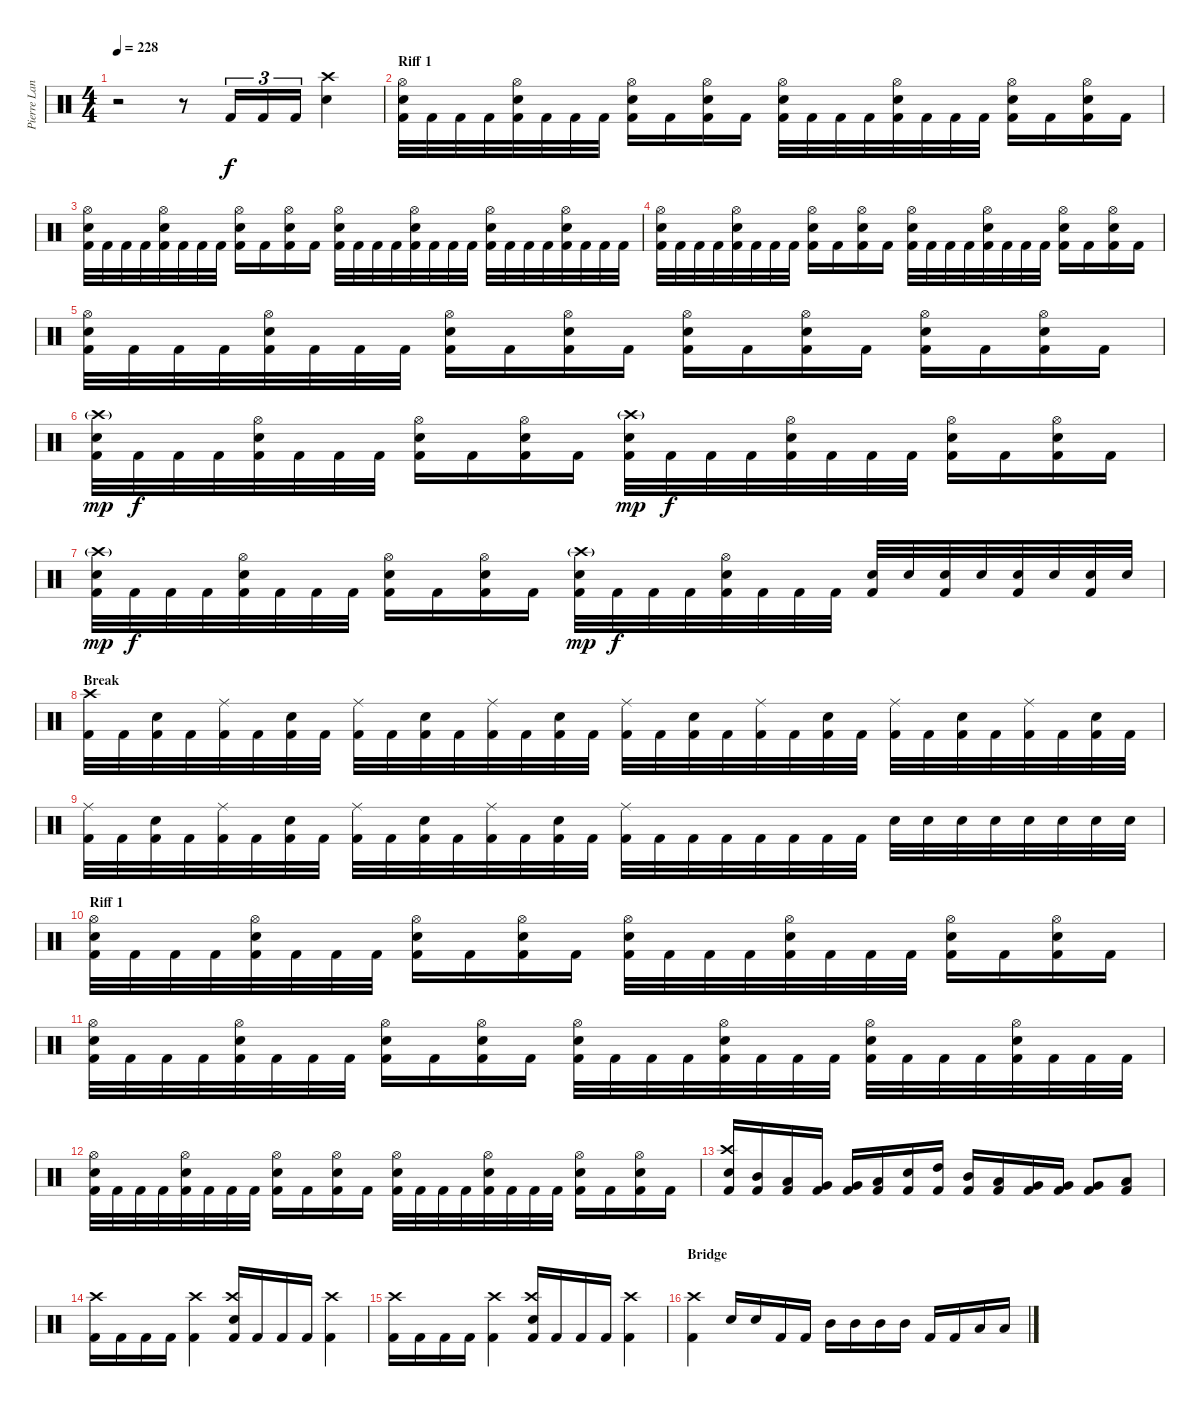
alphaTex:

\track ("Pierre Langlois (Drums)" "Pierre Lan") {instrument percussion}
\staff {score}
\articulation defaults
\ts (4 4)
\tempo 228
\clef neutral
\ks c
r.2{dy f} r.8 "Kick (hit) 2".16{tu (3 2)} "Kick (hit) 2".16{tu (3 2)} "Kick (hit) 2".16{tu (3 2)} ("Crash high (hit)" "Snare (hit) 2").4 |
\section ("" "Riff 1")
("Hi-Hat (open)" "Snare (hit) 2" "Kick (hit) 2").32 "Kick (hit) 2".32 "Kick (hit) 2".32 "Kick (hit) 2".32 ("Hi-Hat (open)" "Snare (hit) 2" "Kick (hit) 2").32 "Kick (hit) 2".32 "Kick (hit) 2".32 "Kick (hit) 2".32 ("Hi-Hat (open)" "Kick (hit) 2" "Snare (hit) 2").16 "Kick (hit) 2".16 ("Hi-Hat (open)" "Snare (hit) 2" "Kick (hit) 2").16 "Kick (hit) 2".16 ("Hi-Hat (open)" "Snare (hit) 2" "Kick (hit) 2").32 "Kick (hit) 2".32 "Kick (hit) 2".32 "Kick (hit) 2".32 ("Hi-Hat (open)" "Snare (hit) 2" "Kick (hit) 2").32 "Kick (hit) 2".32 "Kick (hit) 2".32 "Kick (hit) 2".32 ("Hi-Hat (open)" "Snare (hit) 2" "Kick (hit) 2").16 "Kick (hit) 2".16 ("Hi-Hat (open)" "Snare (hit) 2" "Kick (hit) 2").16 "Kick (hit) 2".16 |
("Hi-Hat (open)" "Snare (hit) 2" "Kick (hit) 2").32 "Kick (hit) 2".32 "Kick (hit) 2".32 "Kick (hit) 2".32 ("Hi-Hat (open)" "Snare (hit) 2" "Kick (hit) 2").32 "Kick (hit) 2".32 "Kick (hit) 2".32 "Kick (hit) 2".32 ("Hi-Hat (open)" "Kick (hit) 2" "Snare (hit) 2").16 "Kick (hit) 2".16 ("Hi-Hat (open)" "Snare (hit) 2" "Kick (hit) 2").16 "Kick (hit) 2".16 ("Hi-Hat (open)" "Snare (hit) 2" "Kick (hit) 2").32 "Kick (hit) 2".32 "Kick (hit) 2".32 "Kick (hit) 2".32 ("Hi-Hat (open)" "Snare (hit) 2" "Kick (hit) 2").32 "Kick (hit) 2".32 "Kick (hit) 2".32 "Kick (hit) 2".32 ("Hi-Hat (open)" "Snare (hit) 2" "Kick (hit) 2").32 "Kick (hit) 2".32 "Kick (hit) 2".32 "Kick (hit) 2".32 ("Hi-Hat (open)" "Snare (hit) 2" "Kick (hit) 2").32 "Kick (hit) 2".32 "Kick (hit) 2".32 "Kick (hit) 2".32 |
("Hi-Hat (open)" "Snare (hit) 2" "Kick (hit) 2").32 "Kick (hit) 2".32 "Kick (hit) 2".32 "Kick (hit) 2".32 ("Hi-Hat (open)" "Snare (hit) 2" "Kick (hit) 2").32 "Kick (hit) 2".32 "Kick (hit) 2".32 "Kick (hit) 2".32 ("Hi-Hat (open)" "Kick (hit) 2" "Snare (hit) 2").16 "Kick (hit) 2".16 ("Hi-Hat (open)" "Snare (hit) 2" "Kick (hit) 2").16 "Kick (hit) 2".16 ("Hi-Hat (open)" "Snare (hit) 2" "Kick (hit) 2").32 "Kick (hit) 2".32 "Kick (hit) 2".32 "Kick (hit) 2".32 ("Hi-Hat (open)" "Snare (hit) 2" "Kick (hit) 2").32 "Kick (hit) 2".32 "Kick (hit) 2".32 "Kick (hit) 2".32 ("Hi-Hat (open)" "Snare (hit) 2" "Kick (hit) 2").16 "Kick (hit) 2".16 ("Hi-Hat (open)" "Snare (hit) 2" "Kick (hit) 2").16 "Kick (hit) 2".16 |
("Hi-Hat (open)" "Snare (hit) 2" "Kick (hit) 2").32 "Kick (hit) 2".32 "Kick (hit) 2".32 "Kick (hit) 2".32 ("Hi-Hat (open)" "Snare (hit) 2" "Kick (hit) 2").32 "Kick (hit) 2".32 "Kick (hit) 2".32 "Kick (hit) 2".32 ("Hi-Hat (open)" "Kick (hit) 2" "Snare (hit) 2").16 "Kick (hit) 2".16 ("Hi-Hat (open)" "Snare (hit) 2" "Kick (hit) 2").16 "Kick (hit) 2".16 ("Hi-Hat (open)" "Snare (hit) 2" "Kick (hit) 2").16 "Kick (hit) 2".16 ("Hi-Hat (open)" "Snare (hit) 2" "Kick (hit) 2").16 "Kick (hit) 2".16 ("Hi-Hat (open)" "Snare (hit) 2" "Kick (hit) 2").16 "Kick (hit) 2".16 ("Hi-Hat (open)" "Snare (hit) 2" "Kick (hit) 2").16 "Kick (hit) 2".16 |
("Crash high (hit)"{g} "Snare (hit) 2" "Kick (hit) 2").32{dy mp} "Kick (hit) 2".32{dy f} "Kick (hit) 2".32 "Kick (hit) 2".32 ("Hi-Hat (open)" "Snare (hit) 2" "Kick (hit) 2").32 "Kick (hit) 2".32 "Kick (hit) 2".32 "Kick (hit) 2".32 ("Hi-Hat (open)" "Kick (hit) 2" "Snare (hit) 2").16 "Kick (hit) 2".16 ("Hi-Hat (open)" "Snare (hit) 2" "Kick (hit) 2").16 "Kick (hit) 2".16 ("Crash high (hit)"{g} "Snare (hit) 2" "Kick (hit) 2").32{dy mp} "Kick (hit) 2".32{dy f} "Kick (hit) 2".32 "Kick (hit) 2".32 ("Hi-Hat (open)" "Snare (hit) 2" "Kick (hit) 2").32 "Kick (hit) 2".32 "Kick (hit) 2".32 "Kick (hit) 2".32 ("Hi-Hat (open)" "Snare (hit) 2" "Kick (hit) 2").16 "Kick (hit) 2".16 ("Hi-Hat (open)" "Snare (hit) 2" "Kick (hit) 2").16 "Kick (hit) 2".16 |
("Crash high (hit)"{g} "Snare (hit) 2" "Kick (hit) 2").32{dy mp} "Kick (hit) 2".32{dy f} "Kick (hit) 2".32 "Kick (hit) 2".32 ("Hi-Hat (open)" "Snare (hit) 2" "Kick (hit) 2").32 "Kick (hit) 2".32 "Kick (hit) 2".32 "Kick (hit) 2".32 ("Hi-Hat (open)" "Kick (hit) 2" "Snare (hit) 2").16 "Kick (hit) 2".16 ("Hi-Hat (open)" "Snare (hit) 2" "Kick (hit) 2").16 "Kick (hit) 2".16 ("Crash high (hit)"{g} "Snare (hit) 2" "Kick (hit) 2").32{dy mp} "Kick (hit) 2".32{dy f} "Kick (hit) 2".32 "Kick (hit) 2".32 ("Hi-Hat (open)" "Snare (hit) 2" "Kick (hit) 2").32 "Kick (hit) 2".32 "Kick (hit) 2".32 "Kick (hit) 2".32 ("Snare (hit) 2" "Kick (hit) 2").32 "Snare (hit) 2".32 ("Snare (hit) 2" "Kick (hit) 2").32 "Snare (hit) 2".32 ("Snare (hit) 2" "Kick (hit) 2").32 "Snare (hit) 2".32 ("Snare (hit) 2" "Kick (hit) 2").32 "Snare (hit) 2".32 |
\section ("" "Break")
("Crash high (hit)" "Kick (hit) 2").32 "Kick (hit) 2".32 ("Snare (hit) 2" "Kick (hit) 2").32 "Kick (hit) 2".32 ("Ride (middle)" "Kick (hit) 2").32 "Kick (hit) 2".32 ("Snare (hit) 2" "Kick (hit) 2").32 "Kick (hit) 2".32 ("Ride (middle)" "Kick (hit) 2").32 "Kick (hit) 2".32 ("Snare (hit) 2" "Kick (hit) 2").32 "Kick (hit) 2".32 ("Ride (middle)" "Kick (hit) 2").32 "Kick (hit) 2".32 ("Snare (hit) 2" "Kick (hit) 2").32 "Kick (hit) 2".32 ("Ride (middle)" "Kick (hit) 2").32 "Kick (hit) 2".32 ("Snare (hit) 2" "Kick (hit) 2").32 "Kick (hit) 2".32 ("Ride (middle)" "Kick (hit) 2").32 "Kick (hit) 2".32 ("Snare (hit) 2" "Kick (hit) 2").32 "Kick (hit) 2".32 ("Ride (middle)" "Kick (hit) 2").32 "Kick (hit) 2".32 ("Snare (hit) 2" "Kick (hit) 2").32 "Kick (hit) 2".32 ("Ride (middle)" "Kick (hit) 2").32 "Kick (hit) 2".32 ("Snare (hit) 2" "Kick (hit) 2").32 "Kick (hit) 2".32 |
("Ride (middle)" "Kick (hit) 2").32 "Kick (hit) 2".32 ("Snare (hit) 2" "Kick (hit) 2").32 "Kick (hit) 2".32 ("Ride (middle)" "Kick (hit) 2").32 "Kick (hit) 2".32 ("Snare (hit) 2" "Kick (hit) 2").32 "Kick (hit) 2".32 ("Ride (middle)" "Kick (hit) 2").32 "Kick (hit) 2".32 ("Snare (hit) 2" "Kick (hit) 2").32 "Kick (hit) 2".32 ("Ride (middle)" "Kick (hit) 2").32 "Kick (hit) 2".32 ("Snare (hit) 2" "Kick (hit) 2").32 "Kick (hit) 2".32 ("Ride (middle)" "Kick (hit) 2").32 "Kick (hit) 2".32 "Kick (hit) 2".32 "Kick (hit) 2".32 "Kick (hit) 2".32 "Kick (hit) 2".32 "Kick (hit) 2".32 "Kick (hit) 2".32 "Snare (hit) 2".32 "Snare (hit) 2".32 "Snare (hit) 2".32 "Snare (hit) 2".32 "Snare (hit) 2".32 "Snare (hit) 2".32 "Snare (hit) 2".32 "Snare (hit) 2".32 |
\section ("" "Riff 1")
("Hi-Hat (open)" "Snare (hit) 2" "Kick (hit) 2").32 "Kick (hit) 2".32 "Kick (hit) 2".32 "Kick (hit) 2".32 ("Hi-Hat (open)" "Snare (hit) 2" "Kick (hit) 2").32 "Kick (hit) 2".32 "Kick (hit) 2".32 "Kick (hit) 2".32 ("Hi-Hat (open)" "Kick (hit) 2" "Snare (hit) 2").16 "Kick (hit) 2".16 ("Hi-Hat (open)" "Snare (hit) 2" "Kick (hit) 2").16 "Kick (hit) 2".16 ("Hi-Hat (open)" "Snare (hit) 2" "Kick (hit) 2").32 "Kick (hit) 2".32 "Kick (hit) 2".32 "Kick (hit) 2".32 ("Hi-Hat (open)" "Snare (hit) 2" "Kick (hit) 2").32 "Kick (hit) 2".32 "Kick (hit) 2".32 "Kick (hit) 2".32 ("Hi-Hat (open)" "Snare (hit) 2" "Kick (hit) 2").16 "Kick (hit) 2".16 ("Hi-Hat (open)" "Snare (hit) 2" "Kick (hit) 2").16 "Kick (hit) 2".16 |
("Hi-Hat (open)" "Snare (hit) 2" "Kick (hit) 2").32 "Kick (hit) 2".32 "Kick (hit) 2".32 "Kick (hit) 2".32 ("Hi-Hat (open)" "Snare (hit) 2" "Kick (hit) 2").32 "Kick (hit) 2".32 "Kick (hit) 2".32 "Kick (hit) 2".32 ("Hi-Hat (open)" "Kick (hit) 2" "Snare (hit) 2").16 "Kick (hit) 2".16 ("Hi-Hat (open)" "Snare (hit) 2" "Kick (hit) 2").16 "Kick (hit) 2".16 ("Hi-Hat (open)" "Snare (hit) 2" "Kick (hit) 2").32 "Kick (hit) 2".32 "Kick (hit) 2".32 "Kick (hit) 2".32 ("Hi-Hat (open)" "Snare (hit) 2" "Kick (hit) 2").32 "Kick (hit) 2".32 "Kick (hit) 2".32 "Kick (hit) 2".32 ("Hi-Hat (open)" "Snare (hit) 2" "Kick (hit) 2").32 "Kick (hit) 2".32 "Kick (hit) 2".32 "Kick (hit) 2".32 ("Hi-Hat (open)" "Snare (hit) 2" "Kick (hit) 2").32 "Kick (hit) 2".32 "Kick (hit) 2".32 "Kick (hit) 2".32 |
("Hi-Hat (open)" "Snare (hit) 2" "Kick (hit) 2").32 "Kick (hit) 2".32 "Kick (hit) 2".32 "Kick (hit) 2".32 ("Hi-Hat (open)" "Snare (hit) 2" "Kick (hit) 2").32 "Kick (hit) 2".32 "Kick (hit) 2".32 "Kick (hit) 2".32 ("Hi-Hat (open)" "Kick (hit) 2" "Snare (hit) 2").16 "Kick (hit) 2".16 ("Hi-Hat (open)" "Snare (hit) 2" "Kick (hit) 2").16 "Kick (hit) 2".16 ("Hi-Hat (open)" "Snare (hit) 2" "Kick (hit) 2").32 "Kick (hit) 2".32 "Kick (hit) 2".32 "Kick (hit) 2".32 ("Hi-Hat (open)" "Snare (hit) 2" "Kick (hit) 2").32 "Kick (hit) 2".32 "Kick (hit) 2".32 "Kick (hit) 2".32 ("Hi-Hat (open)" "Snare (hit) 2" "Kick (hit) 2").16 "Kick (hit) 2".16 ("Hi-Hat (open)" "Snare (hit) 2" "Kick (hit) 2").16 "Kick (hit) 2".16 |
("Crash high (hit)" "Snare (hit) 2" "Kick (hit) 2").16 ("Mid Tom (hit)" "Kick (hit) 2").16 ("Low Tom (hit)" "Kick (hit) 2").16 ("Very Low Tom (hit)" "Kick (hit) 2").16 ("Very Low Tom (hit)" "Kick (hit) 2").16 ("Low Floor Tom (hit)" "Kick (hit) 2").16 ("Snare (hit) 2" "Kick (hit) 2").16 ("High Tom (hit)" "Kick (hit) 2").16 ("Mid Tom (hit)" "Kick (hit) 2").16 ("Low Tom (hit)" "Kick (hit) 2").16 ("Very Low Tom (hit)" "Kick (hit) 2").16 ("Very Low Tom (hit)" "Kick (hit) 2").16 ("Very Low Tom (hit)" "Kick (hit) 2").8 ("Low Floor Tom (hit)" "Kick (hit) 2").8 |
("Crash high (hit)" "Kick (hit) 2").16 "Kick (hit) 2".16 "Kick (hit) 2".16 "Kick (hit) 2".16 ("Crash high (hit)" "Kick (hit) 2").4 ("Crash high (hit)" "Snare (hit) 2" "Kick (hit) 2").16 "Kick (hit) 2".16 "Kick (hit) 2".16 "Kick (hit) 2".16 ("Crash high (hit)" "Kick (hit) 2").4 |
("Crash high (hit)" "Kick (hit) 2").16 "Kick (hit) 2".16 "Kick (hit) 2".16 "Kick (hit) 2".16 ("Crash high (hit)" "Kick (hit) 2").4 ("Crash high (hit)" "Snare (hit) 2" "Kick (hit) 2").16 "Kick (hit) 2".16 "Kick (hit) 2".16 "Kick (hit) 2".16 ("Crash high (hit)" "Kick (hit) 2").4 |
\section ("" "Bridge")
("Crash high (hit)" "Kick (hit) 2").4 "Snare (hit) 2".16 "Snare (hit) 2".16 "Kick (hit) 2".16 "Kick (hit) 2".16 "Mid Tom (hit)".16 "Mid Tom (hit)".16 "Mid Tom (hit)".16 "Mid Tom (hit)".16 "Kick (hit) 2".16 "Kick (hit) 2".16 "Low Tom (hit)".16 "Low Tom (hit)".16
